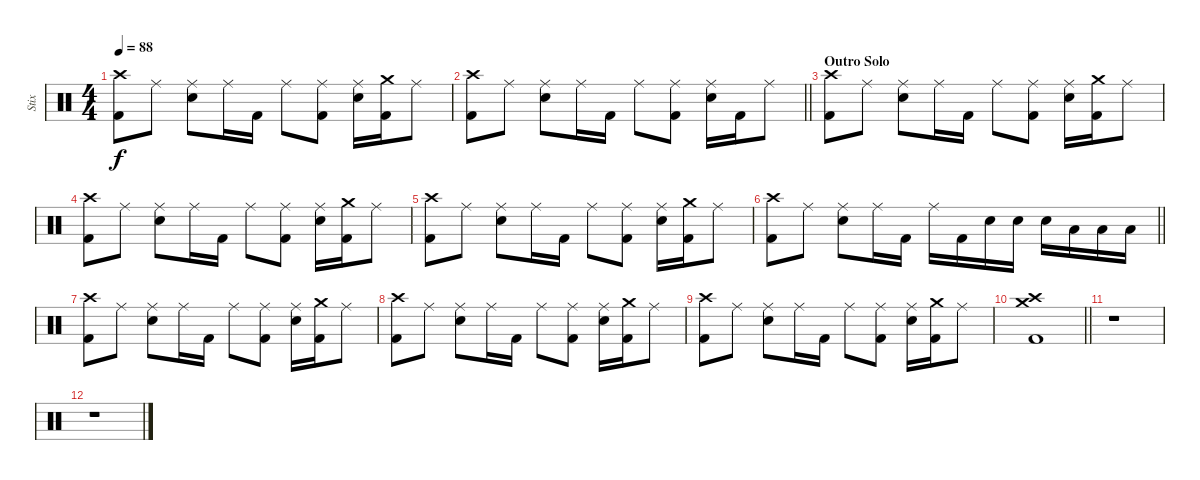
\track ("Stix" "Stix") {instrument percussion}
\staff {score}
\articulation defaults
\ts (4 4)
\tempo 88
\clef neutral
\ks c
("Crash high (hit)" "Kick (hit) 2").8{dy f} "Ride (middle)".8 ("Ride (middle)" "Electric Snare (hit)").8 "Ride (middle)".16 "Kick (hit) 2".16 "Ride (middle)".8 ("Ride (middle)" "Kick (hit) 2").8 ("Ride (middle)" "Electric Snare (hit)").16 ("Crash medium (hit)" "Kick (hit) 2").16 "Ride (middle)".8 |
\barLineRight lightlight
("Crash high (hit)" "Kick (hit) 2").8 "Ride (middle)".8 ("Ride (middle)" "Electric Snare (hit)").8 "Ride (middle)".16 "Kick (hit) 2".16 "Ride (middle)".8 ("Ride (middle)" "Kick (hit) 2").8 ("Ride (middle)" "Electric Snare (hit)").16 "Kick (hit) 2".16 "Ride (middle)".8 |
\section ("" "Outro Solo")
("Crash high (hit)" "Kick (hit) 2").8 "Ride (middle)".8 ("Ride (middle)" "Electric Snare (hit)").8 "Ride (middle)".16 "Kick (hit) 2".16 "Ride (middle)".8 ("Ride (middle)" "Kick (hit) 2").8 ("Ride (middle)" "Electric Snare (hit)").16 ("Crash medium (hit)" "Kick (hit) 2").16 "Ride (middle)".8 |
("Crash high (hit)" "Kick (hit) 2").8 "Ride (middle)".8 ("Ride (middle)" "Electric Snare (hit)").8 "Ride (middle)".16 "Kick (hit) 2".16 "Ride (middle)".8 ("Ride (middle)" "Kick (hit) 2").8 ("Ride (middle)" "Electric Snare (hit)").16 ("Crash medium (hit)" "Kick (hit) 2").16 "Ride (middle)".8 |
("Crash high (hit)" "Kick (hit) 2").8 "Ride (middle)".8 ("Ride (middle)" "Electric Snare (hit)").8 "Ride (middle)".16 "Kick (hit) 2".16 "Ride (middle)".8 ("Ride (middle)" "Kick (hit) 2").8 ("Ride (middle)" "Electric Snare (hit)").16 ("Crash medium (hit)" "Kick (hit) 2").16 "Ride (middle)".8 |
\barLineRight lightlight
("Crash high (hit)" "Kick (hit) 2").8 "Ride (middle)".8 ("Ride (middle)" "Electric Snare (hit)").8 "Ride (middle)".16 "Kick (hit) 2".16 "Ride (middle)".16 "Kick (hit) 2".16 "Electric Snare (hit)".16 "Electric Snare (hit)".16 "Electric Snare (hit)".16 "Low Tom (hit)".16 "Low Tom (hit)".16 "Low Tom (hit)".16 |
("Crash high (hit)" "Kick (hit) 2").8 "Ride (middle)".8 ("Ride (middle)" "Electric Snare (hit)").8 "Ride (middle)".16 "Kick (hit) 2".16 "Ride (middle)".8 ("Ride (middle)" "Kick (hit) 2").8 ("Ride (middle)" "Electric Snare (hit)").16 ("Crash medium (hit)" "Kick (hit) 2").16 "Ride (middle)".8 |
("Crash high (hit)" "Kick (hit) 2").8 "Ride (middle)".8 ("Ride (middle)" "Electric Snare (hit)").8 "Ride (middle)".16 "Kick (hit) 2".16 "Ride (middle)".8 ("Ride (middle)" "Kick (hit) 2").8 ("Ride (middle)" "Electric Snare (hit)").16 ("Crash medium (hit)" "Kick (hit) 2").16 "Ride (middle)".8 |
("Crash high (hit)" "Kick (hit) 2").8 "Ride (middle)".8 ("Ride (middle)" "Electric Snare (hit)").8 "Ride (middle)".16 "Kick (hit) 2".16 "Ride (middle)".8 ("Ride (middle)" "Kick (hit) 2").8 ("Ride (middle)" "Electric Snare (hit)").16 ("Crash medium (hit)" "Kick (hit) 2").16 "Ride (middle)".8 |
\barLineRight lightlight
("Crash high (hit)" "Crash medium (hit)" "Kick (hit) 2").1 |
r.1 |
r.1
